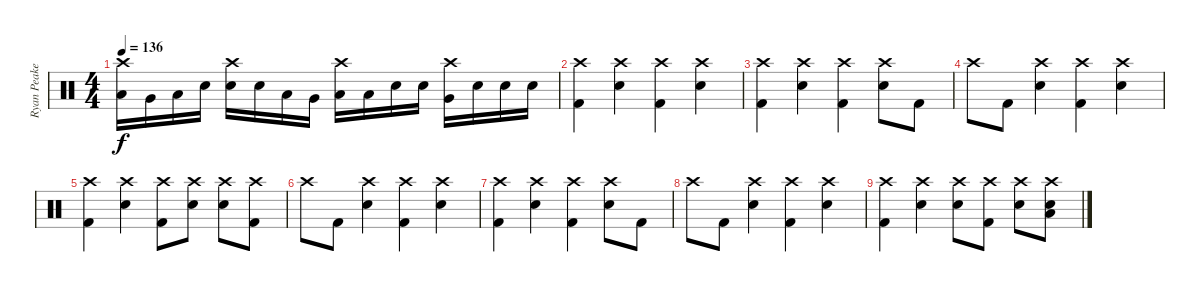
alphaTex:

\track ("Ryan Peake" "Ryan Peake") {instrument percussion}
\staff {score}
\articulation defaults
\ts (4 4)
\tempo 136
\clef neutral
\ks c
("Low Tom (hit)" "Crash high (hit)").16{dy f} "Very Low Tom (hit)".16 "Low Floor Tom (hit)".16 "Snare (hit) 2".16 ("Snare (hit) 2" "Crash high (hit)").16 "Snare (hit) 2".16 "Low Tom (hit)".16 "Very Low Tom (hit)".16 ("Low Floor Tom (hit)" "Crash high (hit)").16 "Low Floor Tom (hit)".16 "Snare (hit) 2".16 "Snare (hit) 2".16 ("Very Low Tom (hit)" "Crash high (hit)").16 "Snare (hit) 2".16 "Snare (hit) 2".16 "Snare (hit) 2".16 |
("Kick (hit) 2" "Crash high (hit)").4 ("Snare (hit) 2" "Crash high (hit)").4 ("Kick (hit) 2" "Crash high (hit)").4 ("Snare (hit) 2" "Crash high (hit)").4 |
("Kick (hit) 2" "Crash high (hit)").4 ("Snare (hit) 2" "Crash high (hit)").4 ("Kick (hit) 2" "Crash high (hit)").4 ("Snare (hit) 2" "Crash high (hit)").8 "Kick (hit) 2".8 |
"Crash high (hit)".8 "Kick (hit) 2".8 ("Snare (hit) 2" "Crash high (hit)").4 ("Kick (hit) 2" "Crash high (hit)").4 ("Snare (hit) 2" "Crash high (hit)").4 |
("Kick (hit) 2" "Crash high (hit)").4 ("Snare (hit) 2" "Crash high (hit)").4 ("Kick (hit) 2" "Crash high (hit)").8 ("Snare (hit) 2" "Crash high (hit)").8 ("Snare (hit) 2" "Crash high (hit)").8 ("Kick (hit) 2" "Crash high (hit)").8 |
"Crash high (hit)".8 "Kick (hit) 2".8 ("Snare (hit) 2" "Crash high (hit)").4 ("Kick (hit) 2" "Crash high (hit)").4 ("Snare (hit) 2" "Crash high (hit)").4 |
("Kick (hit) 2" "Crash high (hit)").4 ("Snare (hit) 2" "Crash high (hit)").4 ("Kick (hit) 2" "Crash high (hit)").4 ("Snare (hit) 2" "Crash high (hit)").8 "Kick (hit) 2".8 |
"Crash high (hit)".8 "Kick (hit) 2".8 ("Snare (hit) 2" "Crash high (hit)").4 ("Kick (hit) 2" "Crash high (hit)").4 ("Snare (hit) 2" "Crash high (hit)").4 |
("Kick (hit) 2" "Crash high (hit)").4 ("Snare (hit) 2" "Crash high (hit)").4 ("Snare (hit) 2" "Crash high (hit)").8 ("Kick (hit) 2" "Crash high (hit)").8 ("Snare (hit) 2" "Crash high (hit)").8 ("Snare (hit) 2" "Low Tom (hit)" "Crash high (hit)").8
